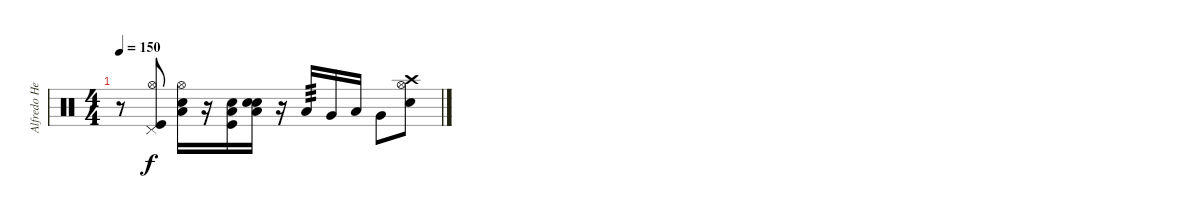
\track ("Alfredo Hernandez" "Alfredo He") {instrument percussion}
\staff {score}
\articulation defaults
\ts (4 4)
\tempo 150
\clef neutral
\ks c
r.8{dy f} ("Kick (hit)" "Hi-Hat (open)" "Pedal Hi-Hat (hit)").8 ("Electric Snare (hit)" "Low Tom (hit)" "Hi-Hat (open)").16 r.16 ("Kick (hit)" "Low Tom (hit)" "Electric Snare (hit)").16 ("Electric Snare (hit)" "Low Tom (hit)" "Electric Snare (hit)").16 r.16 "Low Tom (hit)".16{tp 3} "Very Low Tom (hit)".16 "Low Tom (hit)".16 "Very Low Tom (hit)".8 ("Electric Snare (hit)" "Crash high (hit)" "Hi-Hat (open)").8
